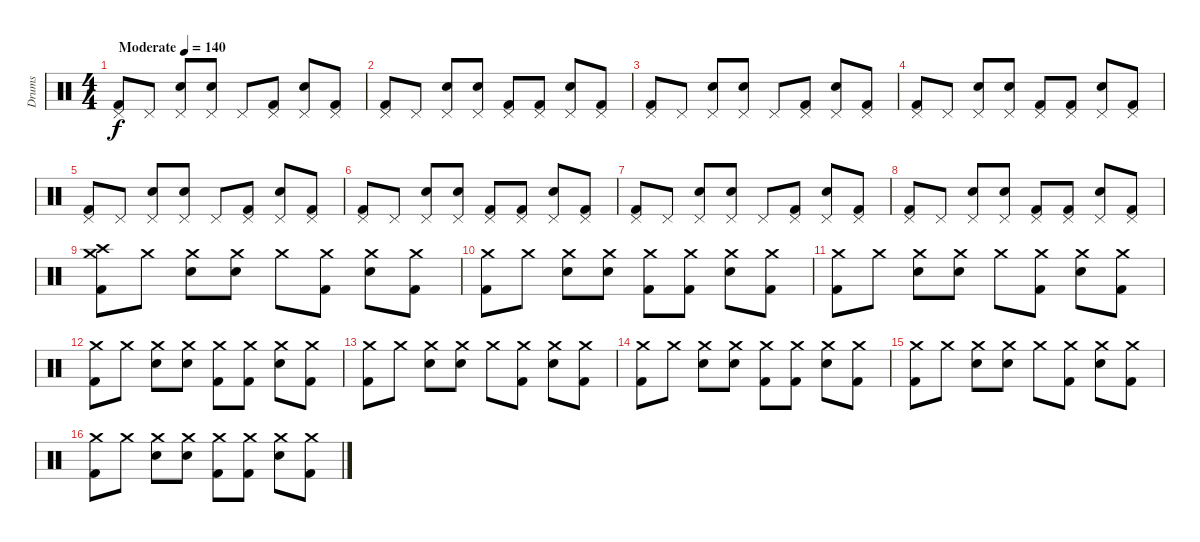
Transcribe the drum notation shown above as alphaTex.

\track ("Drums" "Drums") {instrument percussion}
\staff {score}
\articulation defaults
\ts (4 4)
\tempo (140 "Moderate")
\clef neutral
\ks c
("Pedal Hi-Hat (hit)" "Kick (hit) 2").8{dy f} "Pedal Hi-Hat (hit)".8 ("Pedal Hi-Hat (hit)" "Electric Snare (hit)").8 ("Pedal Hi-Hat (hit)" "Electric Snare (hit)").8 "Pedal Hi-Hat (hit)".8 ("Pedal Hi-Hat (hit)" "Kick (hit) 2").8 ("Pedal Hi-Hat (hit)" "Electric Snare (hit)").8 ("Pedal Hi-Hat (hit)" "Kick (hit) 2").8 |
("Pedal Hi-Hat (hit)" "Kick (hit) 2").8 "Pedal Hi-Hat (hit)".8 ("Pedal Hi-Hat (hit)" "Electric Snare (hit)").8 ("Pedal Hi-Hat (hit)" "Electric Snare (hit)").8 ("Pedal Hi-Hat (hit)" "Kick (hit) 2").8 ("Pedal Hi-Hat (hit)" "Kick (hit) 2").8 ("Pedal Hi-Hat (hit)" "Electric Snare (hit)").8 ("Pedal Hi-Hat (hit)" "Kick (hit) 2").8 |
("Pedal Hi-Hat (hit)" "Kick (hit) 2").8 "Pedal Hi-Hat (hit)".8 ("Pedal Hi-Hat (hit)" "Electric Snare (hit)").8 ("Pedal Hi-Hat (hit)" "Electric Snare (hit)").8 "Pedal Hi-Hat (hit)".8 ("Pedal Hi-Hat (hit)" "Kick (hit) 2").8 ("Pedal Hi-Hat (hit)" "Electric Snare (hit)").8 ("Pedal Hi-Hat (hit)" "Kick (hit) 2").8 |
("Pedal Hi-Hat (hit)" "Kick (hit) 2").8 "Pedal Hi-Hat (hit)".8 ("Pedal Hi-Hat (hit)" "Electric Snare (hit)").8 ("Pedal Hi-Hat (hit)" "Electric Snare (hit)").8 ("Pedal Hi-Hat (hit)" "Kick (hit) 2").8 ("Pedal Hi-Hat (hit)" "Kick (hit) 2").8 ("Pedal Hi-Hat (hit)" "Electric Snare (hit)").8 ("Pedal Hi-Hat (hit)" "Kick (hit) 2").8 |
("Pedal Hi-Hat (hit)" "Kick (hit) 2").8 "Pedal Hi-Hat (hit)".8 ("Pedal Hi-Hat (hit)" "Electric Snare (hit)").8 ("Pedal Hi-Hat (hit)" "Electric Snare (hit)").8 "Pedal Hi-Hat (hit)".8 ("Pedal Hi-Hat (hit)" "Kick (hit) 2").8 ("Pedal Hi-Hat (hit)" "Electric Snare (hit)").8 ("Pedal Hi-Hat (hit)" "Kick (hit) 2").8 |
("Pedal Hi-Hat (hit)" "Kick (hit) 2").8 "Pedal Hi-Hat (hit)".8 ("Pedal Hi-Hat (hit)" "Electric Snare (hit)").8 ("Pedal Hi-Hat (hit)" "Electric Snare (hit)").8 ("Pedal Hi-Hat (hit)" "Kick (hit) 2").8 ("Pedal Hi-Hat (hit)" "Kick (hit) 2").8 ("Pedal Hi-Hat (hit)" "Electric Snare (hit)").8 ("Pedal Hi-Hat (hit)" "Kick (hit) 2").8 |
("Pedal Hi-Hat (hit)" "Kick (hit) 2").8 "Pedal Hi-Hat (hit)".8 ("Pedal Hi-Hat (hit)" "Electric Snare (hit)").8 ("Pedal Hi-Hat (hit)" "Electric Snare (hit)").8 "Pedal Hi-Hat (hit)".8 ("Pedal Hi-Hat (hit)" "Kick (hit) 2").8 ("Pedal Hi-Hat (hit)" "Electric Snare (hit)").8 ("Pedal Hi-Hat (hit)" "Kick (hit) 2").8 |
("Pedal Hi-Hat (hit)" "Kick (hit) 2").8 "Pedal Hi-Hat (hit)".8 ("Pedal Hi-Hat (hit)" "Electric Snare (hit)").8 ("Pedal Hi-Hat (hit)" "Electric Snare (hit)").8 ("Pedal Hi-Hat (hit)" "Kick (hit) 2").8 ("Pedal Hi-Hat (hit)" "Kick (hit) 2").8 ("Pedal Hi-Hat (hit)" "Electric Snare (hit)").8 ("Pedal Hi-Hat (hit)" "Kick (hit) 2").8 |
("Crash medium (hit)" "Crash high (hit)" "Kick (hit) 2").8 "Crash medium (hit)".8 ("Crash medium (hit)" "Electric Snare (hit)").8 ("Crash medium (hit)" "Electric Snare (hit)").8 "Crash medium (hit)".8 ("Crash medium (hit)" "Kick (hit) 2").8 ("Crash medium (hit)" "Electric Snare (hit)").8 ("Crash medium (hit)" "Kick (hit) 2").8 |
("Crash medium (hit)" "Kick (hit) 2").8 "Crash medium (hit)".8 ("Crash medium (hit)" "Electric Snare (hit)").8 ("Crash medium (hit)" "Electric Snare (hit)").8 ("Crash medium (hit)" "Kick (hit) 2").8 ("Crash medium (hit)" "Kick (hit) 2").8 ("Crash medium (hit)" "Electric Snare (hit)").8 ("Crash medium (hit)" "Kick (hit) 2").8 |
("Crash medium (hit)" "Kick (hit) 2").8 "Crash medium (hit)".8 ("Crash medium (hit)" "Electric Snare (hit)").8 ("Crash medium (hit)" "Electric Snare (hit)").8 "Crash medium (hit)".8 ("Crash medium (hit)" "Kick (hit) 2").8 ("Crash medium (hit)" "Electric Snare (hit)").8 ("Crash medium (hit)" "Kick (hit) 2").8 |
("Crash medium (hit)" "Kick (hit) 2").8 "Crash medium (hit)".8 ("Crash medium (hit)" "Electric Snare (hit)").8 ("Crash medium (hit)" "Electric Snare (hit)").8 ("Crash medium (hit)" "Kick (hit) 2").8 ("Crash medium (hit)" "Kick (hit) 2").8 ("Crash medium (hit)" "Electric Snare (hit)").8 ("Crash medium (hit)" "Kick (hit) 2").8 |
("Crash medium (hit)" "Kick (hit) 2").8 "Crash medium (hit)".8 ("Crash medium (hit)" "Electric Snare (hit)").8 ("Crash medium (hit)" "Electric Snare (hit)").8 "Crash medium (hit)".8 ("Crash medium (hit)" "Kick (hit) 2").8 ("Crash medium (hit)" "Electric Snare (hit)").8 ("Crash medium (hit)" "Kick (hit) 2").8 |
("Crash medium (hit)" "Kick (hit) 2").8 "Crash medium (hit)".8 ("Crash medium (hit)" "Electric Snare (hit)").8 ("Crash medium (hit)" "Electric Snare (hit)").8 ("Crash medium (hit)" "Kick (hit) 2").8 ("Crash medium (hit)" "Kick (hit) 2").8 ("Crash medium (hit)" "Electric Snare (hit)").8 ("Crash medium (hit)" "Kick (hit) 2").8 |
("Crash medium (hit)" "Kick (hit) 2").8 "Crash medium (hit)".8 ("Crash medium (hit)" "Electric Snare (hit)").8 ("Crash medium (hit)" "Electric Snare (hit)").8 "Crash medium (hit)".8 ("Crash medium (hit)" "Kick (hit) 2").8 ("Crash medium (hit)" "Electric Snare (hit)").8 ("Crash medium (hit)" "Kick (hit) 2").8 |
("Crash medium (hit)" "Kick (hit) 2").8 "Crash medium (hit)".8 ("Crash medium (hit)" "Electric Snare (hit)").8 ("Crash medium (hit)" "Electric Snare (hit)").8 ("Crash medium (hit)" "Kick (hit) 2").8 ("Crash medium (hit)" "Kick (hit) 2").8 ("Crash medium (hit)" "Electric Snare (hit)").8 ("Crash medium (hit)" "Kick (hit) 2").8
